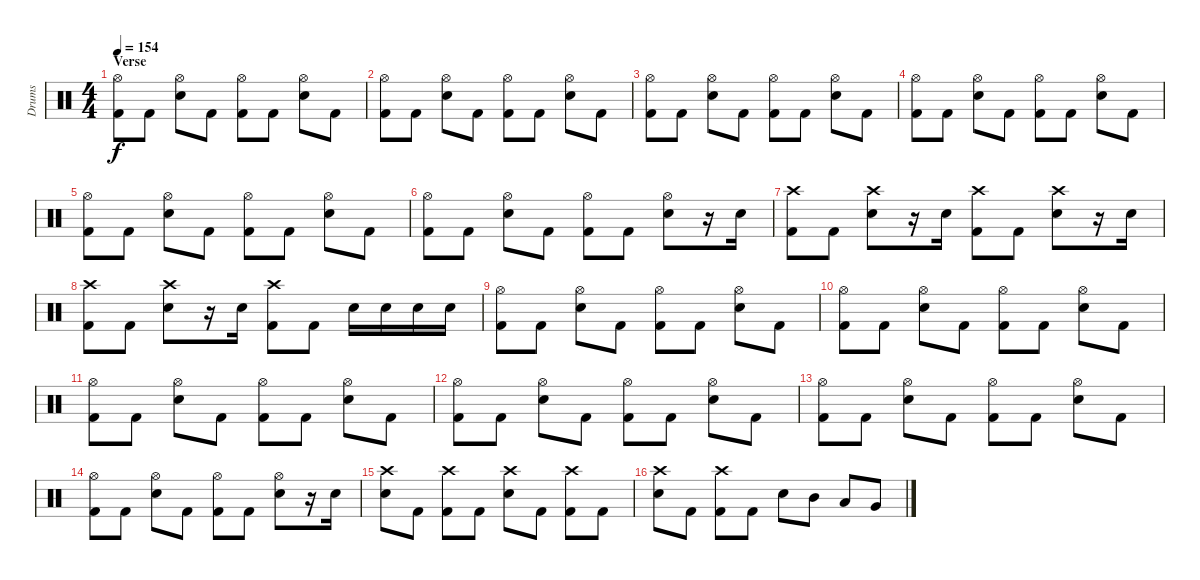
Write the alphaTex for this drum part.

\track ("Drums" "Drums") {instrument percussion}
\staff {score}
\articulation defaults
\ts (4 4)
\section ("" "Verse")
\tempo 154
\clef neutral
\ks c
("Hi-Hat (open)" "Kick (hit) 2").8{dy f} "Kick (hit) 2".8 ("Hi-Hat (open)" "Electric Snare (hit)").8 "Kick (hit) 2".8 ("Hi-Hat (open)" "Kick (hit) 2").8 "Kick (hit) 2".8 ("Hi-Hat (open)" "Electric Snare (hit)").8 "Kick (hit) 2".8 |
("Hi-Hat (open)" "Kick (hit) 2").8 "Kick (hit) 2".8 ("Hi-Hat (open)" "Electric Snare (hit)").8 "Kick (hit) 2".8 ("Hi-Hat (open)" "Kick (hit) 2").8 "Kick (hit) 2".8 ("Hi-Hat (open)" "Electric Snare (hit)").8 "Kick (hit) 2".8 |
("Hi-Hat (open)" "Kick (hit) 2").8 "Kick (hit) 2".8 ("Hi-Hat (open)" "Electric Snare (hit)").8 "Kick (hit) 2".8 ("Hi-Hat (open)" "Kick (hit) 2").8 "Kick (hit) 2".8 ("Hi-Hat (open)" "Electric Snare (hit)").8 "Kick (hit) 2".8 |
("Hi-Hat (open)" "Kick (hit) 2").8 "Kick (hit) 2".8 ("Hi-Hat (open)" "Electric Snare (hit)").8 "Kick (hit) 2".8 ("Hi-Hat (open)" "Kick (hit) 2").8 "Kick (hit) 2".8 ("Hi-Hat (open)" "Electric Snare (hit)").8 "Kick (hit) 2".8 |
("Hi-Hat (open)" "Kick (hit) 2").8 "Kick (hit) 2".8 ("Hi-Hat (open)" "Electric Snare (hit)").8 "Kick (hit) 2".8 ("Hi-Hat (open)" "Kick (hit) 2").8 "Kick (hit) 2".8 ("Hi-Hat (open)" "Electric Snare (hit)").8 "Kick (hit) 2".8 |
("Hi-Hat (open)" "Kick (hit) 2").8 "Kick (hit) 2".8 ("Hi-Hat (open)" "Electric Snare (hit)").8 "Kick (hit) 2".8 ("Hi-Hat (open)" "Kick (hit) 2").8 "Kick (hit) 2".8 ("Hi-Hat (open)" "Electric Snare (hit)").8 r.16 "Electric Snare (hit)".16 |
("Crash high (hit)" "Kick (hit) 2").8 "Kick (hit) 2".8 ("Crash high (hit)" "Electric Snare (hit)").8 r.16 "Electric Snare (hit)".16 ("Crash high (hit)" "Kick (hit) 2").8 "Kick (hit) 2".8 ("Crash high (hit)" "Electric Snare (hit)").8 r.16 "Electric Snare (hit)".16 |
("Crash high (hit)" "Kick (hit) 2").8 "Kick (hit) 2".8 ("Crash high (hit)" "Electric Snare (hit)").8 r.16 "Electric Snare (hit)".16 ("Crash high (hit)" "Kick (hit) 2").8 "Kick (hit) 2".8 "Electric Snare (hit)".16 "Electric Snare (hit)".16 "Electric Snare (hit)".16 "Electric Snare (hit)".16 |
("Hi-Hat (open)" "Kick (hit) 2").8 "Kick (hit) 2".8 ("Hi-Hat (open)" "Electric Snare (hit)").8 "Kick (hit) 2".8 ("Hi-Hat (open)" "Kick (hit) 2").8 "Kick (hit) 2".8 ("Hi-Hat (open)" "Electric Snare (hit)").8 "Kick (hit) 2".8 |
("Hi-Hat (open)" "Kick (hit) 2").8 "Kick (hit) 2".8 ("Hi-Hat (open)" "Electric Snare (hit)").8 "Kick (hit) 2".8 ("Hi-Hat (open)" "Kick (hit) 2").8 "Kick (hit) 2".8 ("Hi-Hat (open)" "Electric Snare (hit)").8 "Kick (hit) 2".8 |
("Hi-Hat (open)" "Kick (hit) 2").8 "Kick (hit) 2".8 ("Hi-Hat (open)" "Electric Snare (hit)").8 "Kick (hit) 2".8 ("Hi-Hat (open)" "Kick (hit) 2").8 "Kick (hit) 2".8 ("Hi-Hat (open)" "Electric Snare (hit)").8 "Kick (hit) 2".8 |
("Hi-Hat (open)" "Kick (hit) 2").8 "Kick (hit) 2".8 ("Hi-Hat (open)" "Electric Snare (hit)").8 "Kick (hit) 2".8 ("Hi-Hat (open)" "Kick (hit) 2").8 "Kick (hit) 2".8 ("Hi-Hat (open)" "Electric Snare (hit)").8 "Kick (hit) 2".8 |
("Hi-Hat (open)" "Kick (hit) 2").8 "Kick (hit) 2".8 ("Hi-Hat (open)" "Electric Snare (hit)").8 "Kick (hit) 2".8 ("Hi-Hat (open)" "Kick (hit) 2").8 "Kick (hit) 2".8 ("Hi-Hat (open)" "Electric Snare (hit)").8 "Kick (hit) 2".8 |
("Hi-Hat (open)" "Kick (hit) 2").8 "Kick (hit) 2".8 ("Hi-Hat (open)" "Electric Snare (hit)").8 "Kick (hit) 2".8 ("Hi-Hat (open)" "Kick (hit) 2").8 "Kick (hit) 2".8 ("Hi-Hat (open)" "Electric Snare (hit)").8 r.16 "Electric Snare (hit)".16 |
("Crash high (hit)" "Electric Snare (hit)").8 "Kick (hit) 2".8 ("Crash high (hit)" "Kick (hit) 2").8 "Kick (hit) 2".8 ("Crash high (hit)" "Electric Snare (hit)").8 "Kick (hit) 2".8 ("Crash high (hit)" "Kick (hit) 2").8 "Kick (hit) 2".8 |
("Crash high (hit)" "Electric Snare (hit)").8 "Kick (hit) 2".8 ("Crash high (hit)" "Kick (hit) 2").8 "Kick (hit) 2".8 "Electric Snare (hit)".8 "Mid Tom (hit)".8 "Low Tom (hit)".8 "Very Low Tom (hit)".8
